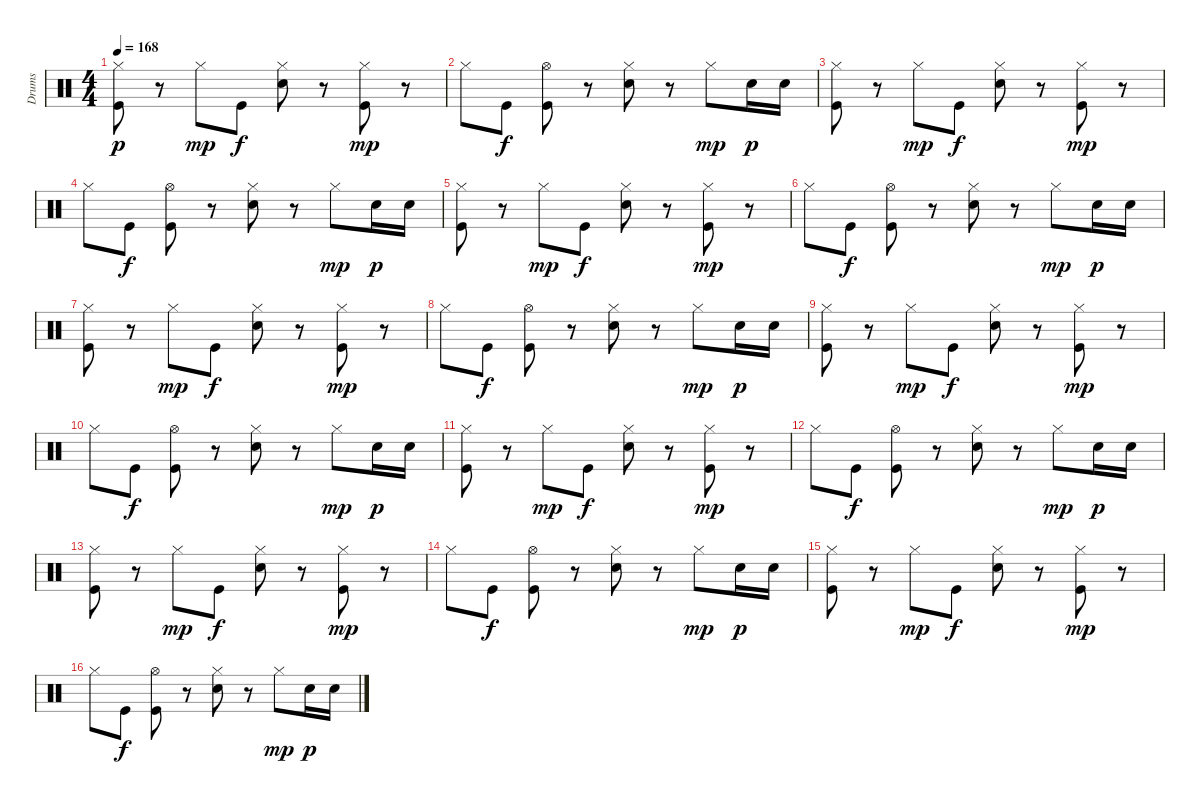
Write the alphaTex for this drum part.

\track ("Drums" "Drums") {instrument percussion}
\staff {score}
\articulation defaults
\ts (4 4)
\tempo 168
\clef neutral
\ks c
("Hi-Hat (closed)" "Kick (hit)").8{dy p} r.8 "Hi-Hat (closed)".8{dy mp} "Kick (hit)".8{dy f} ("Hi-Hat (closed)" "Electric Snare (hit)").8 r.8 ("Hi-Hat (closed)" "Kick (hit)").8{dy mp} r.8 |
"Hi-Hat (closed)".8 "Kick (hit)".8{dy f} ("Hi-Hat (open)" "Kick (hit)").8 r.8 ("Hi-Hat (closed)" "Electric Snare (hit)").8 r.8 "Hi-Hat (closed)".8{dy mp} "Electric Snare (hit)".16{dy p} "Electric Snare (hit)".16 |
("Hi-Hat (closed)" "Kick (hit)").8 r.8 "Hi-Hat (closed)".8{dy mp} "Kick (hit)".8{dy f} ("Hi-Hat (closed)" "Electric Snare (hit)").8 r.8 ("Hi-Hat (closed)" "Kick (hit)").8{dy mp} r.8 |
"Hi-Hat (closed)".8 "Kick (hit)".8{dy f} ("Hi-Hat (open)" "Kick (hit)").8 r.8 ("Hi-Hat (closed)" "Electric Snare (hit)").8 r.8 "Hi-Hat (closed)".8{dy mp} "Electric Snare (hit)".16{dy p} "Electric Snare (hit)".16 |
("Hi-Hat (closed)" "Kick (hit)").8 r.8 "Hi-Hat (closed)".8{dy mp} "Kick (hit)".8{dy f} ("Hi-Hat (closed)" "Electric Snare (hit)").8 r.8 ("Hi-Hat (closed)" "Kick (hit)").8{dy mp} r.8 |
"Hi-Hat (closed)".8 "Kick (hit)".8{dy f} ("Hi-Hat (open)" "Kick (hit)").8 r.8 ("Hi-Hat (closed)" "Electric Snare (hit)").8 r.8 "Hi-Hat (closed)".8{dy mp} "Electric Snare (hit)".16{dy p} "Electric Snare (hit)".16 |
("Hi-Hat (closed)" "Kick (hit)").8 r.8 "Hi-Hat (closed)".8{dy mp} "Kick (hit)".8{dy f} ("Hi-Hat (closed)" "Electric Snare (hit)").8 r.8 ("Hi-Hat (closed)" "Kick (hit)").8{dy mp} r.8 |
"Hi-Hat (closed)".8 "Kick (hit)".8{dy f} ("Hi-Hat (open)" "Kick (hit)").8 r.8 ("Hi-Hat (closed)" "Electric Snare (hit)").8 r.8 "Hi-Hat (closed)".8{dy mp} "Electric Snare (hit)".16{dy p} "Electric Snare (hit)".16 |
("Hi-Hat (closed)" "Kick (hit)").8 r.8 "Hi-Hat (closed)".8{dy mp} "Kick (hit)".8{dy f} ("Hi-Hat (closed)" "Electric Snare (hit)").8 r.8 ("Hi-Hat (closed)" "Kick (hit)").8{dy mp} r.8 |
"Hi-Hat (closed)".8 "Kick (hit)".8{dy f} ("Hi-Hat (open)" "Kick (hit)").8 r.8 ("Hi-Hat (closed)" "Electric Snare (hit)").8 r.8 "Hi-Hat (closed)".8{dy mp} "Electric Snare (hit)".16{dy p} "Electric Snare (hit)".16 |
("Hi-Hat (closed)" "Kick (hit)").8 r.8 "Hi-Hat (closed)".8{dy mp} "Kick (hit)".8{dy f} ("Hi-Hat (closed)" "Electric Snare (hit)").8 r.8 ("Hi-Hat (closed)" "Kick (hit)").8{dy mp} r.8 |
"Hi-Hat (closed)".8 "Kick (hit)".8{dy f} ("Hi-Hat (open)" "Kick (hit)").8 r.8 ("Hi-Hat (closed)" "Electric Snare (hit)").8 r.8 "Hi-Hat (closed)".8{dy mp} "Electric Snare (hit)".16{dy p} "Electric Snare (hit)".16 |
("Hi-Hat (closed)" "Kick (hit)").8 r.8 "Hi-Hat (closed)".8{dy mp} "Kick (hit)".8{dy f} ("Hi-Hat (closed)" "Electric Snare (hit)").8 r.8 ("Hi-Hat (closed)" "Kick (hit)").8{dy mp} r.8 |
"Hi-Hat (closed)".8 "Kick (hit)".8{dy f} ("Hi-Hat (open)" "Kick (hit)").8 r.8 ("Hi-Hat (closed)" "Electric Snare (hit)").8 r.8 "Hi-Hat (closed)".8{dy mp} "Electric Snare (hit)".16{dy p} "Electric Snare (hit)".16 |
("Hi-Hat (closed)" "Kick (hit)").8 r.8 "Hi-Hat (closed)".8{dy mp} "Kick (hit)".8{dy f} ("Hi-Hat (closed)" "Electric Snare (hit)").8 r.8 ("Hi-Hat (closed)" "Kick (hit)").8{dy mp} r.8 |
"Hi-Hat (closed)".8 "Kick (hit)".8{dy f} ("Hi-Hat (open)" "Kick (hit)").8 r.8 ("Hi-Hat (closed)" "Electric Snare (hit)").8 r.8 "Hi-Hat (closed)".8{dy mp} "Electric Snare (hit)".16{dy p} "Electric Snare (hit)".16
